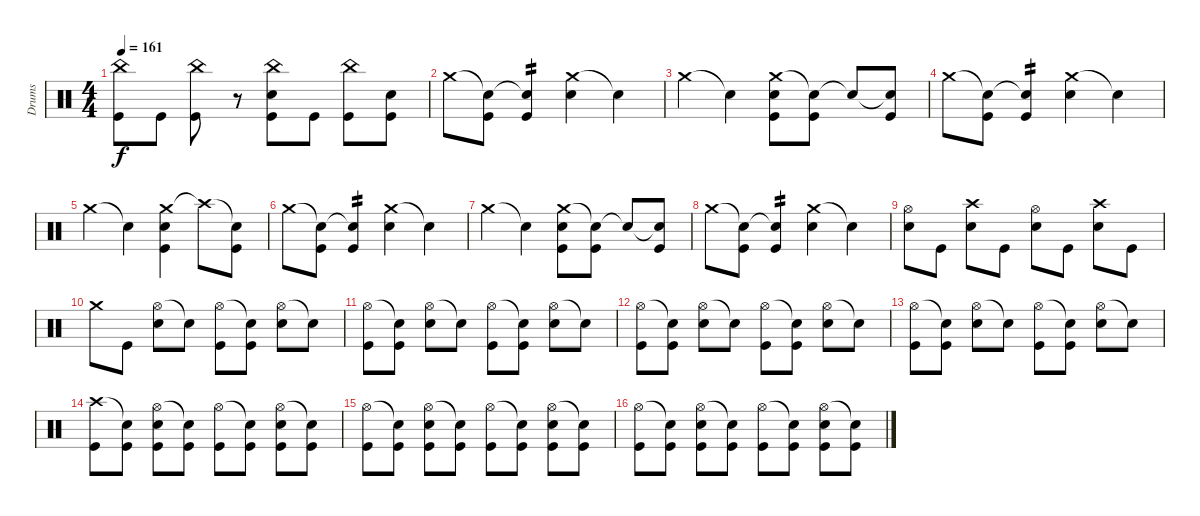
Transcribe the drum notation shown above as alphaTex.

\track ("Drums" "Drums") {instrument percussion}
\staff {score}
\articulation defaults
\ts (4 4)
\tempo 161
\clef neutral
\ks c
("China (hit)" "Kick (hit)").8{dy f} "Kick (hit)".8 ("China (hit)" "Kick (hit)").8 r.8 ("China (hit)" "Snare (hit) 2" "Kick (hit)").8 "Kick (hit)".8 ("China (hit)" "Kick (hit)").8 ("Snare (hit) 2" "Kick (hit)").8 |
"Crash medium (hit)".8 ("Snare (hit)"{t} "Kick (hit)").8 ("Snare (hit)"{t} "Kick (hit)").4{tp 2} ("Crash medium (hit)" "Snare (hit) 2").4 "Snare (hit)"{t}.4 |
"Crash medium (hit)".4 "Snare (hit)"{t}.4 ("Crash medium (hit)" "Snare (hit) 2" "Kick (hit)").8 ("Snare (hit)"{t} "Kick (hit)").8 "Snare (hit)"{t}.8 ("Snare (hit)"{t} "Kick (hit)").8 |
"Crash medium (hit)".8 ("Snare (hit)"{t} "Kick (hit)").8 ("Snare (hit)"{t} "Kick (hit)").4{tp 2} ("Crash medium (hit)" "Snare (hit) 2").4 "Snare (hit)"{t}.4 |
"Crash medium (hit)".4 "Snare (hit)"{t}.4 ("Crash medium (hit)" "Snare (hit) 2" "Kick (hit)").4 "Crash high (hit)"{t}.8 ("Snare (hit)"{t} "Kick (hit)").8 |
"Crash medium (hit)".8 ("Snare (hit)"{t} "Kick (hit)").8 ("Snare (hit)"{t} "Kick (hit)").4{tp 2} ("Crash medium (hit)" "Snare (hit) 2").4 "Snare (hit)"{t}.4 |
"Crash medium (hit)".4 "Snare (hit)"{t}.4 ("Crash medium (hit)" "Snare (hit) 2" "Kick (hit)").8 ("Snare (hit)"{t} "Kick (hit)").8 "Snare (hit)"{t}.8 ("Snare (hit)"{t} "Kick (hit)").8 |
"Crash medium (hit)".8 ("Snare (hit)"{t} "Kick (hit)").8 ("Snare (hit)"{t} "Kick (hit)").4{tp 2} ("Crash medium (hit)" "Snare (hit) 2").4 "Snare (hit)"{t}.4 |
("Snare (hit) 2" "Hi-Hat (open)").8 "Kick (hit)".8 ("Snare (hit) 2" "Crash high (hit)").8 "Kick (hit)".8 ("Snare (hit) 2" "Hi-Hat (open)").8 "Kick (hit)".8 ("Snare (hit) 2" "Crash high (hit)").8 "Kick (hit)".8 |
"Crash medium (hit)".8 "Kick (hit)".8 ("Hi-Hat (open)" "Snare (hit) 2").8 "Snare (hit)"{t}.8 ("Hi-Hat (open)" "Kick (hit)").8 ("Snare (hit)"{t} "Kick (hit)").8 ("Hi-Hat (open)" "Snare (hit) 2").8 "Snare (hit)"{t}.8 |
("Hi-Hat (open)" "Kick (hit)").8 ("Snare (hit)"{t} "Kick (hit)").8 ("Hi-Hat (open)" "Snare (hit) 2").8 "Snare (hit)"{t}.8 ("Hi-Hat (open)" "Kick (hit)").8 ("Snare (hit)"{t} "Kick (hit)").8 ("Hi-Hat (open)" "Snare (hit) 2").8 "Snare (hit)"{t}.8 |
("Hi-Hat (open)" "Kick (hit)").8 ("Snare (hit)"{t} "Kick (hit)").8 ("Hi-Hat (open)" "Snare (hit) 2").8 "Snare (hit)"{t}.8 ("Hi-Hat (open)" "Kick (hit)").8 ("Snare (hit)"{t} "Kick (hit)").8 ("Hi-Hat (open)" "Snare (hit) 2").8 "Snare (hit)"{t}.8 |
("Hi-Hat (open)" "Kick (hit)").8 ("Snare (hit)"{t} "Kick (hit)").8 ("Hi-Hat (open)" "Snare (hit) 2").8 "Snare (hit)"{t}.8 ("Hi-Hat (open)" "Kick (hit)").8 ("Snare (hit)"{t} "Kick (hit)").8 ("Hi-Hat (open)" "Snare (hit) 2").8 "Snare (hit)"{t}.8 |
("Crash high (hit)" "Kick (hit)").8 ("Snare (hit)"{t} "Kick (hit)").8 ("Hi-Hat (open)" "Snare (hit) 2" "Kick (hit)").8 ("Snare (hit)"{t} "Kick (hit)").8 ("Hi-Hat (open)" "Kick (hit)").8 ("Snare (hit)"{t} "Kick (hit)").8 ("Hi-Hat (open)" "Snare (hit) 2" "Kick (hit)").8 ("Snare (hit)"{t} "Kick (hit)").8 |
("Hi-Hat (open)" "Kick (hit)").8 ("Snare (hit)"{t} "Kick (hit)").8 ("Hi-Hat (open)" "Snare (hit) 2" "Kick (hit)").8 ("Snare (hit)"{t} "Kick (hit)").8 ("Hi-Hat (open)" "Kick (hit)").8 ("Snare (hit)"{t} "Kick (hit)").8 ("Hi-Hat (open)" "Snare (hit) 2" "Kick (hit)").8 ("Snare (hit)"{t} "Kick (hit)").8 |
("Hi-Hat (open)" "Kick (hit)").8 ("Snare (hit)"{t} "Kick (hit)").8 ("Hi-Hat (open)" "Snare (hit) 2" "Kick (hit)").8 ("Snare (hit)"{t} "Kick (hit)").8 ("Hi-Hat (open)" "Kick (hit)").8 ("Snare (hit)"{t} "Kick (hit)").8 ("Hi-Hat (open)" "Snare (hit) 2" "Kick (hit)").8 ("Snare (hit)"{t} "Kick (hit)").8
